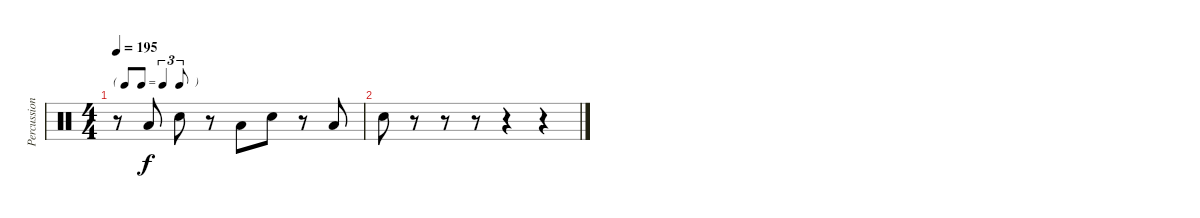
\track ("Percussion" "Percussion") {instrument percussion}
\staff {score}
\articulation defaults
\ts (4 4)
\tf triplet8th
\tempo 195
\clef neutral
\ks c
r.8{dy f} "Low Tom (hit)".8 "Electric Snare (hit)".8 r.8 "Low Tom (hit)".8 "Electric Snare (hit)".8 r.8 "Low Tom (hit)".8 |
"Electric Snare (hit)".8 r.8 r.8 r.8 r.4 r.4
